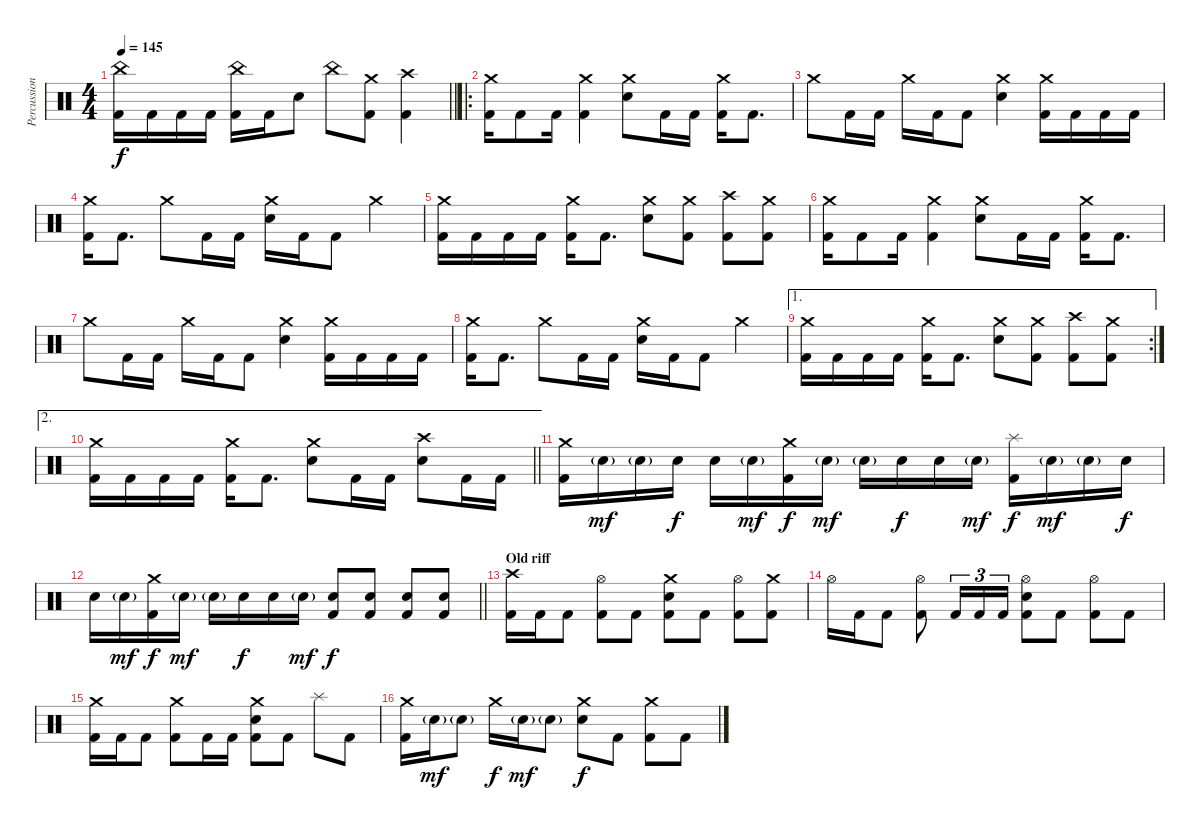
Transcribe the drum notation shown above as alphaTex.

\track ("Percussions" "Percussion") {instrument percussion}
\staff {score}
\articulation defaults
\ts (4 4)
\tempo 145
\clef neutral
\barLineRight lightlight
\ks c
("China (hit)" "Kick (hit) 2").16{dy f} "Kick (hit) 2".16 "Kick (hit) 2".16 "Kick (hit) 2".16 ("China (hit)" "Kick (hit) 2").16 "Kick (hit) 2".16 "Electric Snare (hit)".8 "China (hit)".8 ("Crash medium (hit)" "Kick (hit) 2").8 ("Crash high (hit)" "Kick (hit) 2").4 |
\ro
\section ("" "")
("Crash medium (hit)" "Kick (hit) 2").16 "Kick (hit) 2".8 "Kick (hit) 2".16 ("Crash medium (hit)" "Kick (hit) 2").4 ("Crash medium (hit)" "Electric Snare (hit)").8 "Kick (hit) 2".16 "Kick (hit) 2".16 ("Crash medium (hit)" "Kick (hit) 2").16 "Kick (hit) 2".8{d} |
"Crash medium (hit)".8 "Kick (hit) 2".16 "Kick (hit) 2".16 "Crash medium (hit)".16 "Kick (hit) 2".16 "Kick (hit) 2".8 ("Crash medium (hit)" "Electric Snare (hit)").4 ("Crash medium (hit)" "Kick (hit) 2").16 "Kick (hit) 2".16 "Kick (hit) 2".16 "Kick (hit) 2".16 |
("Crash medium (hit)" "Kick (hit) 2").16 "Kick (hit) 2".8{d} "Crash medium (hit)".8 "Kick (hit) 2".16 "Kick (hit) 2".16 ("Crash medium (hit)" "Electric Snare (hit)").16 "Kick (hit) 2".16 "Kick (hit) 2".8 "Crash medium (hit)".4 |
("Crash medium (hit)" "Kick (hit) 2").16 "Kick (hit) 2".16 "Kick (hit) 2".16 "Kick (hit) 2".16 ("Crash medium (hit)" "Kick (hit) 2").16 "Kick (hit) 2".8{d} ("Crash medium (hit)" "Electric Snare (hit)").8 ("Crash medium (hit)" "Kick (hit) 2").8 ("Crash high (hit)" "Kick (hit) 2").8 ("Crash medium (hit)" "Kick (hit) 2").8 |
("Crash medium (hit)" "Kick (hit) 2").16 "Kick (hit) 2".8 "Kick (hit) 2".16 ("Crash medium (hit)" "Kick (hit) 2").4 ("Crash medium (hit)" "Electric Snare (hit)").8 "Kick (hit) 2".16 "Kick (hit) 2".16 ("Crash medium (hit)" "Kick (hit) 2").16 "Kick (hit) 2".8{d} |
"Crash medium (hit)".8 "Kick (hit) 2".16 "Kick (hit) 2".16 "Crash medium (hit)".16 "Kick (hit) 2".16 "Kick (hit) 2".8 ("Crash medium (hit)" "Electric Snare (hit)").4 ("Crash medium (hit)" "Kick (hit) 2").16 "Kick (hit) 2".16 "Kick (hit) 2".16 "Kick (hit) 2".16 |
("Crash medium (hit)" "Kick (hit) 2").16 "Kick (hit) 2".8{d} "Crash medium (hit)".8 "Kick (hit) 2".16 "Kick (hit) 2".16 ("Crash medium (hit)" "Electric Snare (hit)").16 "Kick (hit) 2".16 "Kick (hit) 2".8 "Crash medium (hit)".4 |
\ae 1
\rc 2
("Crash medium (hit)" "Kick (hit) 2").16 "Kick (hit) 2".16 "Kick (hit) 2".16 "Kick (hit) 2".16 ("Crash medium (hit)" "Kick (hit) 2").16 "Kick (hit) 2".8{d} ("Crash medium (hit)" "Electric Snare (hit)").8 ("Crash medium (hit)" "Kick (hit) 2").8 ("Crash high (hit)" "Kick (hit) 2").8 ("Crash medium (hit)" "Kick (hit) 2").8 |
\ae 2
\barLineRight lightlight
("Crash medium (hit)" "Kick (hit) 2").16 "Kick (hit) 2".16 "Kick (hit) 2".16 "Kick (hit) 2".16 ("Crash medium (hit)" "Kick (hit) 2").16 "Kick (hit) 2".8{d} ("Crash medium (hit)" "Electric Snare (hit)").8 "Kick (hit) 2".16 "Kick (hit) 2".16 ("Crash high (hit)" "Electric Snare (hit)").8 "Kick (hit) 2".16 "Kick (hit) 2".16 |
("Crash medium (hit)" "Kick (hit) 2").16 "Electric Snare (hit)"{g}.16{dy mf} "Electric Snare (hit)"{g}.16 "Electric Snare (hit)".16{dy f} "Electric Snare (hit)".16 "Electric Snare (hit)"{g}.16{dy mf} ("Crash medium (hit)" "Kick (hit) 2").16{dy f} "Electric Snare (hit)"{g}.16{dy mf} "Electric Snare (hit)"{g}.16 "Electric Snare (hit)".16{dy f} "Electric Snare (hit)".16 "Electric Snare (hit)"{g}.16{dy mf} ("Splash (hit)" "Kick (hit) 2").16{dy f} "Electric Snare (hit)"{g}.16{dy mf} "Electric Snare (hit)"{g}.16 "Electric Snare (hit)".16{dy f} |
\barLineRight lightlight "Electric Snare (hit)".16 "Electric Snare (hit)"{g}.16{dy mf}
("Crash medium (hit)" "Kick (hit) 2").16{dy f} "Electric Snare (hit)"{g}.16{dy mf} "Electric Snare (hit)"{g}.16 "Electric Snare (hit)".16{dy f} "Electric Snare (hit)".16 "Electric Snare (hit)"{g}.16{dy mf} ("Electric Snare (hit)" "Kick (hit) 2").8{dy f} ("Electric Snare (hit)" "Kick (hit) 2").8 ("Electric Snare (hit)" "Kick (hit) 2").8 ("Electric Snare (hit)" "Kick (hit) 2").8 |
\section ("" "Old riff")
("Crash high (hit)" "Kick (hit) 2").16 "Kick (hit) 2".16 "Kick (hit) 2".8 ("Hi-Hat (open)" "Kick (hit) 2").8 "Kick (hit) 2".8 ("Crash medium (hit)" "Electric Snare (hit)" "Kick (hit) 2").8 "Kick (hit) 2".8 ("Hi-Hat (open)" "Kick (hit) 2").8 ("Crash medium (hit)" "Kick (hit) 2").8 |
"Hi-Hat (open)".16 "Kick (hit) 2".16 "Kick (hit) 2".8 ("Hi-Hat (open)" "Kick (hit) 2").8 "Kick (hit) 2".16{tu (3 2)} "Kick (hit) 2".16{tu (3 2)} "Kick (hit) 2".16{tu (3 2)} ("Hi-Hat (open)" "Electric Snare (hit)" "Kick (hit) 2").8 "Kick (hit) 2".8 ("Hi-Hat (open)" "Kick (hit) 2").8 "Kick (hit) 2".8 |
("Crash medium (hit)" "Kick (hit) 2").16 "Kick (hit) 2".16 "Kick (hit) 2".8 ("Crash medium (hit)" "Kick (hit) 2").8 "Kick (hit) 2".16 "Kick (hit) 2".16 ("Crash medium (hit)" "Electric Snare (hit)" "Kick (hit) 2").8 "Kick (hit) 2".8 "Splash (hit)".8 "Kick (hit) 2".8 |
("Crash medium (hit)" "Kick (hit) 2").16 "Electric Snare (hit)"{g}.16{dy mf} "Electric Snare (hit)"{g}.8 "Crash medium (hit)".16{dy f} "Electric Snare (hit)"{g}.16{dy mf} "Electric Snare (hit)"{g}.8 ("Crash medium (hit)" "Electric Snare (hit)").8{dy f} "Kick (hit) 2".8 ("Crash medium (hit)" "Kick (hit) 2").8 "Kick (hit) 2".8
